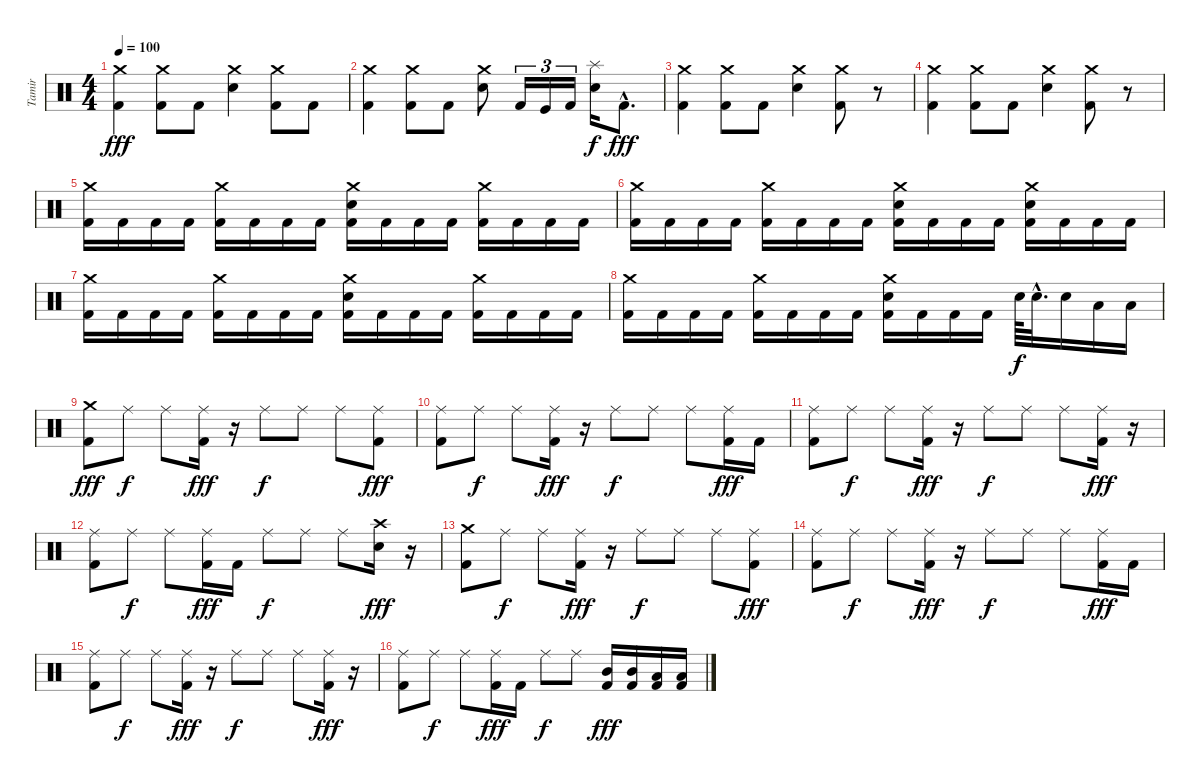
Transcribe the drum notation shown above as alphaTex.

\track ("Tamir" "Tamir") {instrument percussion}
\staff {score}
\articulation defaults
\ts (4 4)
\tempo 100
\clef neutral
\ks c
("Crash medium (hit)" "Kick (hit) 2").4{dy fff} ("Crash medium (hit)" "Kick (hit) 2").8 "Kick (hit) 2".8 ("Crash medium (hit)" "Electric Snare (hit)").4 ("Crash medium (hit)" "Kick (hit) 2").8 "Kick (hit) 2".8 |
("Crash medium (hit)" "Kick (hit) 2").4 ("Crash medium (hit)" "Kick (hit) 2").8 "Kick (hit) 2".8 ("Crash medium (hit)" "Electric Snare (hit)").8 "Kick (hit) 2".16{tu (3 2)} "Kick (hit)".16{tu (3 2)} "Kick (hit) 2".16{tu (3 2)} ("Splash (hit)" "Electric Snare (hit)").16{dy f} "Kick (hit) 2"{hac}.8{d dy fff} |
("Crash medium (hit)" "Kick (hit) 2").4 ("Crash medium (hit)" "Kick (hit) 2").8 "Kick (hit) 2".8 ("Crash medium (hit)" "Electric Snare (hit)").4 ("Crash medium (hit)" "Kick (hit) 2").8 r.8 |
("Crash medium (hit)" "Kick (hit) 2").4 ("Crash medium (hit)" "Kick (hit) 2").8 "Kick (hit) 2".8 ("Crash medium (hit)" "Electric Snare (hit)").4 ("Crash medium (hit)" "Kick (hit) 2").8 r.8 |
("Crash medium (hit)" "Kick (hit) 2").16 "Kick (hit) 2".16 "Kick (hit) 2".16 "Kick (hit) 2".16 ("Crash medium (hit)" "Kick (hit) 2").16 "Kick (hit) 2".16 "Kick (hit) 2".16 "Kick (hit) 2".16 ("Crash medium (hit)" "Electric Snare (hit)" "Kick (hit) 2").16 "Kick (hit) 2".16 "Kick (hit) 2".16 "Kick (hit) 2".16 ("Crash medium (hit)" "Kick (hit) 2").16 "Kick (hit) 2".16 "Kick (hit) 2".16 "Kick (hit) 2".16 |
("Crash medium (hit)" "Kick (hit) 2").16 "Kick (hit) 2".16 "Kick (hit) 2".16 "Kick (hit) 2".16 ("Crash medium (hit)" "Kick (hit) 2").16 "Kick (hit) 2".16 "Kick (hit) 2".16 "Kick (hit) 2".16 ("Crash medium (hit)" "Electric Snare (hit)" "Kick (hit) 2").16 "Kick (hit) 2".16 "Kick (hit) 2".16 "Kick (hit) 2".16 ("Crash medium (hit)" "Electric Snare (hit)" "Kick (hit) 2").16 "Kick (hit) 2".16 "Kick (hit) 2".16 "Kick (hit) 2".16 |
("Crash medium (hit)" "Kick (hit) 2").16 "Kick (hit) 2".16 "Kick (hit) 2".16 "Kick (hit) 2".16 ("Crash medium (hit)" "Kick (hit) 2").16 "Kick (hit) 2".16 "Kick (hit) 2".16 "Kick (hit) 2".16 ("Crash medium (hit)" "Electric Snare (hit)" "Kick (hit) 2").16 "Kick (hit) 2".16 "Kick (hit) 2".16 "Kick (hit) 2".16 ("Crash medium (hit)" "Kick (hit) 2").16 "Kick (hit) 2".16 "Kick (hit) 2".16 "Kick (hit) 2".16 |
("Crash medium (hit)" "Kick (hit) 2").16 "Kick (hit) 2".16 "Kick (hit) 2".16 "Kick (hit) 2".16 ("Crash medium (hit)" "Kick (hit) 2").16 "Kick (hit) 2".16 "Kick (hit) 2".16 "Kick (hit) 2".16 ("Crash medium (hit)" "Electric Snare (hit)" "Kick (hit) 2").16 "Kick (hit) 2".16 "Kick (hit) 2".16 "Kick (hit) 2".16 "Electric Snare (hit)".64{dy f} "Electric Snare (hit)"{hac}.32{d} "Electric Snare (hit)".16 "Low Tom (hit)".16 "Low Tom (hit)".16 |
("Crash medium (hit)" "Kick (hit) 2").8{dy fff} "Ride (middle)".8{dy f} "Ride (middle)".8 ("Ride (middle)" "Kick (hit) 2").16{dy fff} r.16 "Ride (middle)".8{dy f} "Ride (middle)".8 "Ride (middle)".8 ("Ride (middle)" "Kick (hit) 2").8{dy fff} |
("Ride (middle)" "Kick (hit) 2").8 "Ride (middle)".8{dy f} "Ride (middle)".8 ("Ride (middle)" "Kick (hit) 2").16{dy fff} r.16 "Ride (middle)".8{dy f} "Ride (middle)".8 "Ride (middle)".8 ("Ride (middle)" "Kick (hit) 2").16{dy fff} "Kick (hit) 2".16 |
("Ride (middle)" "Kick (hit) 2").8 "Ride (middle)".8{dy f} "Ride (middle)".8 ("Ride (middle)" "Kick (hit) 2").16{dy fff} r.16 "Ride (middle)".8{dy f} "Ride (middle)".8 "Ride (middle)".8 ("Ride (middle)" "Kick (hit) 2").16{dy fff} r.16 |
("Ride (middle)" "Kick (hit) 2").8 "Ride (middle)".8{dy f} "Ride (middle)".8 ("Ride (middle)" "Kick (hit) 2").16{dy fff} "Kick (hit) 2".16 "Ride (middle)".8{dy f} "Ride (middle)".8 "Ride (middle)".8 ("Crash high (hit)" "Electric Snare (hit)").16{dy fff} r.16 |
("Crash medium (hit)" "Kick (hit) 2").8 "Ride (middle)".8{dy f} "Ride (middle)".8 ("Ride (middle)" "Kick (hit) 2").16{dy fff} r.16 "Ride (middle)".8{dy f} "Ride (middle)".8 "Ride (middle)".8 ("Ride (middle)" "Kick (hit) 2").8{dy fff} |
("Ride (middle)" "Kick (hit) 2").8 "Ride (middle)".8{dy f} "Ride (middle)".8 ("Ride (middle)" "Kick (hit) 2").16{dy fff} r.16 "Ride (middle)".8{dy f} "Ride (middle)".8 "Ride (middle)".8 ("Ride (middle)" "Kick (hit) 2").16{dy fff} "Kick (hit) 2".16 |
("Ride (middle)" "Kick (hit) 2").8 "Ride (middle)".8{dy f} "Ride (middle)".8 ("Ride (middle)" "Kick (hit) 2").16{dy fff} r.16 "Ride (middle)".8{dy f} "Ride (middle)".8 "Ride (middle)".8 ("Ride (middle)" "Kick (hit) 2").16{dy fff} r.16 |
("Ride (middle)" "Kick (hit) 2").8 "Ride (middle)".8{dy f} "Ride (middle)".8 ("Ride (middle)" "Kick (hit) 2").16{dy fff} "Kick (hit) 2".16 "Ride (middle)".8{dy f} "Ride (middle)".8 ("Mid Tom (hit)" "Kick (hit) 2").16{dy fff} ("Mid Tom (hit)" "Kick (hit) 2").16 ("Low Tom (hit)" "Kick (hit) 2").16 ("Low Tom (hit)" "Kick (hit) 2").16
